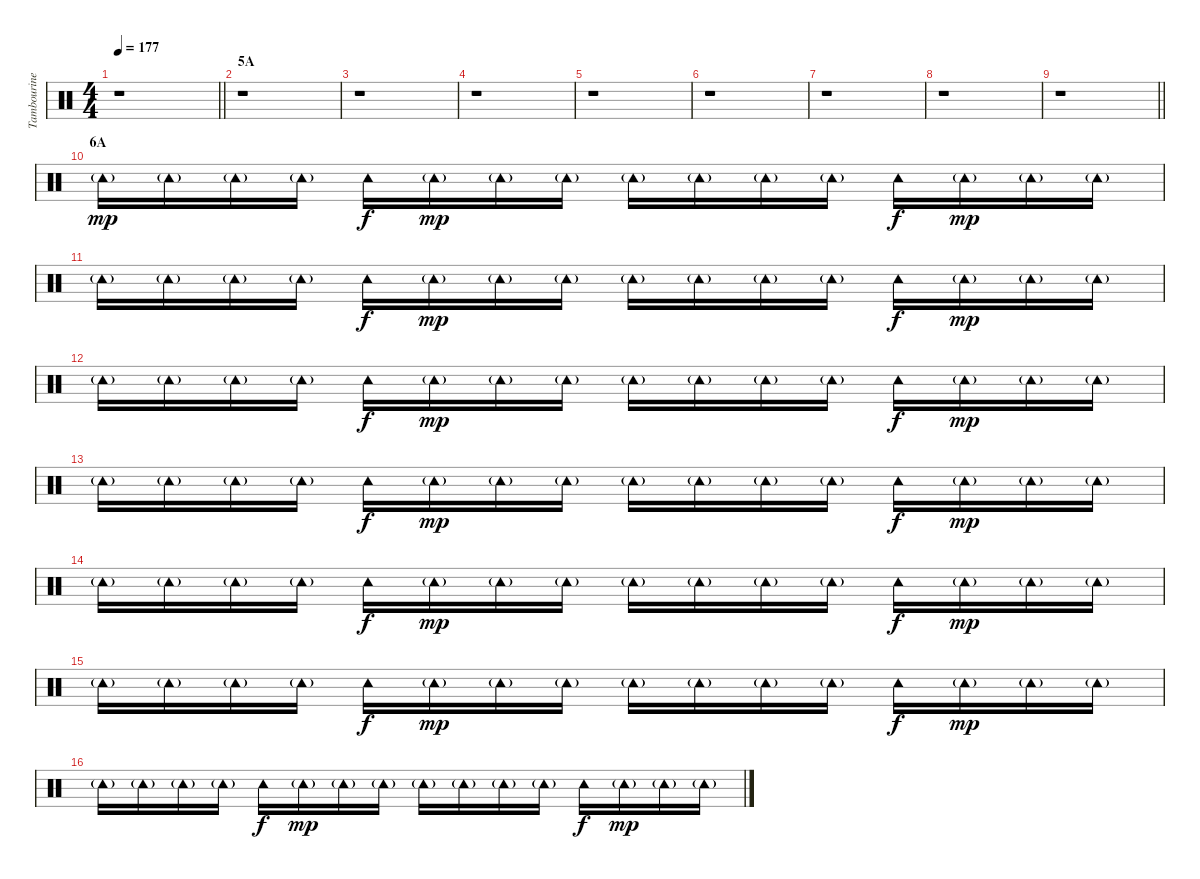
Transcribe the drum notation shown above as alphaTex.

\track ("Tambourine" "Tambourine") {instrument percussion}
\staff {score}
\articulation defaults
\ts (4 4)
\tempo 177
\clef neutral
\barLineRight lightlight
\ks c
r.1{dy f} |
\section ("" "5A")
r.1 |
r.1 |
r.1 |
r.1 |
r.1 |
r.1 |
r.1 |
\barLineRight lightlight
r.1 |
\section ("" "6A")
"Tambourine (hit)"{g}.16{dy mp} "Tambourine (hit)"{g}.16 "Tambourine (hit)"{g}.16 "Tambourine (hit)"{g}.16 "Tambourine (hit)".16{dy f} "Tambourine (hit)"{g}.16{dy mp} "Tambourine (hit)"{g}.16 "Tambourine (hit)"{g}.16 "Tambourine (hit)"{g}.16 "Tambourine (hit)"{g}.16 "Tambourine (hit)"{g}.16 "Tambourine (hit)"{g}.16 "Tambourine (hit)".16{dy f} "Tambourine (hit)"{g}.16{dy mp} "Tambourine (hit)"{g}.16 "Tambourine (hit)"{g}.16 |
"Tambourine (hit)"{g}.16 "Tambourine (hit)"{g}.16 "Tambourine (hit)"{g}.16 "Tambourine (hit)"{g}.16 "Tambourine (hit)".16{dy f} "Tambourine (hit)"{g}.16{dy mp} "Tambourine (hit)"{g}.16 "Tambourine (hit)"{g}.16 "Tambourine (hit)"{g}.16 "Tambourine (hit)"{g}.16 "Tambourine (hit)"{g}.16 "Tambourine (hit)"{g}.16 "Tambourine (hit)".16{dy f} "Tambourine (hit)"{g}.16{dy mp} "Tambourine (hit)"{g}.16 "Tambourine (hit)"{g}.16 |
"Tambourine (hit)"{g}.16 "Tambourine (hit)"{g}.16 "Tambourine (hit)"{g}.16 "Tambourine (hit)"{g}.16 "Tambourine (hit)".16{dy f} "Tambourine (hit)"{g}.16{dy mp} "Tambourine (hit)"{g}.16 "Tambourine (hit)"{g}.16 "Tambourine (hit)"{g}.16 "Tambourine (hit)"{g}.16 "Tambourine (hit)"{g}.16 "Tambourine (hit)"{g}.16 "Tambourine (hit)".16{dy f} "Tambourine (hit)"{g}.16{dy mp} "Tambourine (hit)"{g}.16 "Tambourine (hit)"{g}.16 |
"Tambourine (hit)"{g}.16 "Tambourine (hit)"{g}.16 "Tambourine (hit)"{g}.16 "Tambourine (hit)"{g}.16 "Tambourine (hit)".16{dy f} "Tambourine (hit)"{g}.16{dy mp} "Tambourine (hit)"{g}.16 "Tambourine (hit)"{g}.16 "Tambourine (hit)"{g}.16 "Tambourine (hit)"{g}.16 "Tambourine (hit)"{g}.16 "Tambourine (hit)"{g}.16 "Tambourine (hit)".16{dy f} "Tambourine (hit)"{g}.16{dy mp} "Tambourine (hit)"{g}.16 "Tambourine (hit)"{g}.16 |
"Tambourine (hit)"{g}.16 "Tambourine (hit)"{g}.16 "Tambourine (hit)"{g}.16 "Tambourine (hit)"{g}.16 "Tambourine (hit)".16{dy f} "Tambourine (hit)"{g}.16{dy mp} "Tambourine (hit)"{g}.16 "Tambourine (hit)"{g}.16 "Tambourine (hit)"{g}.16 "Tambourine (hit)"{g}.16 "Tambourine (hit)"{g}.16 "Tambourine (hit)"{g}.16 "Tambourine (hit)".16{dy f} "Tambourine (hit)"{g}.16{dy mp} "Tambourine (hit)"{g}.16 "Tambourine (hit)"{g}.16 |
"Tambourine (hit)"{g}.16 "Tambourine (hit)"{g}.16 "Tambourine (hit)"{g}.16 "Tambourine (hit)"{g}.16 "Tambourine (hit)".16{dy f} "Tambourine (hit)"{g}.16{dy mp} "Tambourine (hit)"{g}.16 "Tambourine (hit)"{g}.16 "Tambourine (hit)"{g}.16 "Tambourine (hit)"{g}.16 "Tambourine (hit)"{g}.16 "Tambourine (hit)"{g}.16 "Tambourine (hit)".16{dy f} "Tambourine (hit)"{g}.16{dy mp} "Tambourine (hit)"{g}.16 "Tambourine (hit)"{g}.16 |
"Tambourine (hit)"{g}.16 "Tambourine (hit)"{g}.16 "Tambourine (hit)"{g}.16 "Tambourine (hit)"{g}.16 "Tambourine (hit)".16{dy f} "Tambourine (hit)"{g}.16{dy mp} "Tambourine (hit)"{g}.16 "Tambourine (hit)"{g}.16 "Tambourine (hit)"{g}.16 "Tambourine (hit)"{g}.16 "Tambourine (hit)"{g}.16 "Tambourine (hit)"{g}.16 "Tambourine (hit)".16{dy f} "Tambourine (hit)"{g}.16{dy mp} "Tambourine (hit)"{g}.16 "Tambourine (hit)"{g}.16
